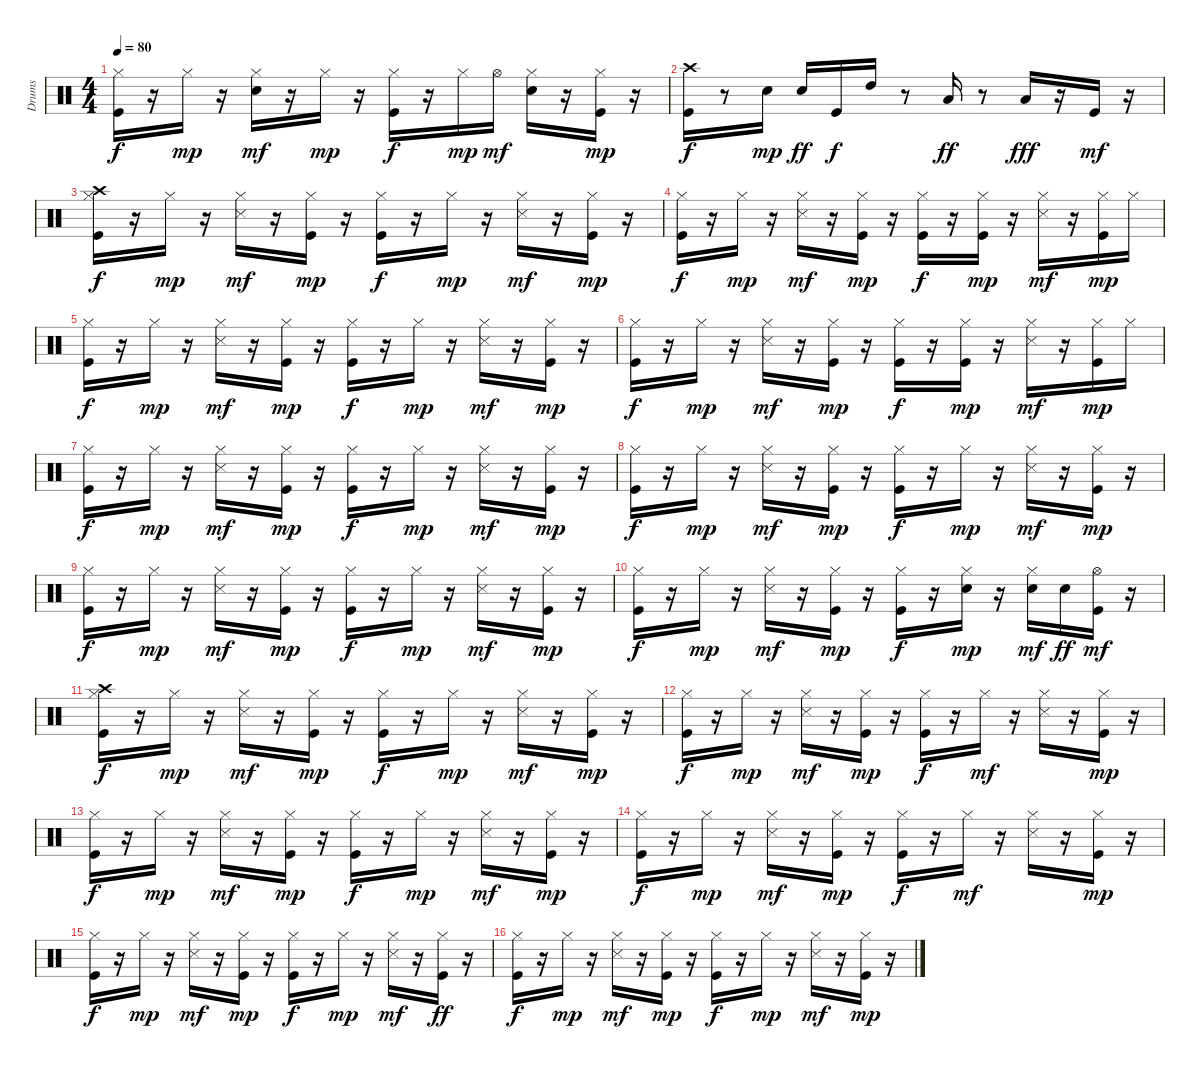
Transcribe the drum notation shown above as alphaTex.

\track ("Drums  " "Drums  ") {instrument percussion}
\staff {score}
\articulation defaults
\ts (4 4)
\tempo 80
\clef neutral
\ks c
("Kick (hit)" "Hi-Hat (closed)").16{dy f} r.16 "Hi-Hat (closed)".16{dy mp} r.16 ("Snare (hit) 2" "Hi-Hat (closed)").16{dy mf} r.16 "Hi-Hat (closed)".16{dy mp} r.16 ("Kick (hit)" "Hi-Hat (closed)").16{dy f} r.16 "Hi-Hat (closed)".16{dy mp} "Hi-Hat (open)".16{dy mf} ("Snare (hit) 2" "Hi-Hat (closed)").16 r.16 ("Kick (hit)" "Hi-Hat (closed)").16{dy mp} r.16 |
("Kick (hit)" "Crash high (hit)").16{dy f} r.8 "Snare (hit) 2".16{dy mp} "Snare (hit) 2".16{dy ff} "Kick (hit)".16{dy f} "High Tom (hit)".16 r.8 "Low Tom (hit)".16{dy ff} r.8 "Low Floor Tom (hit)".16{dy fff} r.16 "Kick (hit)".16{dy mf} r.16 |
("Kick (hit)" "Hi-Hat (closed)" "Crash high (hit)").16{dy f} r.16 "Hi-Hat (closed)".16{dy mp} r.16 ("Hi-Hat (closed)" "Snare (side stick) 3").16{dy mf} r.16 ("Kick (hit)" "Hi-Hat (closed)").16{dy mp} r.16 ("Kick (hit)" "Hi-Hat (closed)").16{dy f} r.16 "Hi-Hat (closed)".16{dy mp} r.16 ("Hi-Hat (closed)" "Snare (side stick) 3").16{dy mf} r.16 ("Kick (hit)" "Hi-Hat (closed)").16{dy mp} r.16 |
("Kick (hit)" "Hi-Hat (closed)").16{dy f} r.16 "Hi-Hat (closed)".16{dy mp} r.16 ("Hi-Hat (closed)" "Snare (side stick) 3").16{dy mf} r.16 ("Kick (hit)" "Hi-Hat (closed)").16{dy mp} r.16 ("Kick (hit)" "Hi-Hat (closed)").16{dy f} r.16 ("Kick (hit)" "Hi-Hat (closed)").16{dy mp} r.16 ("Hi-Hat (closed)" "Snare (side stick) 3").16{dy mf} r.16 ("Kick (hit)" "Hi-Hat (closed)").16{dy mp} "Hi-Hat (closed)".16 |
("Kick (hit)" "Hi-Hat (closed)").16{dy f} r.16 "Hi-Hat (closed)".16{dy mp} r.16 ("Hi-Hat (closed)" "Snare (side stick) 3").16{dy mf} r.16 ("Kick (hit)" "Hi-Hat (closed)").16{dy mp} r.16 ("Kick (hit)" "Hi-Hat (closed)").16{dy f} r.16 "Hi-Hat (closed)".16{dy mp} r.16 ("Hi-Hat (closed)" "Snare (side stick) 3").16{dy mf} r.16 ("Kick (hit)" "Hi-Hat (closed)").16{dy mp} r.16 |
("Kick (hit)" "Hi-Hat (closed)").16{dy f} r.16 "Hi-Hat (closed)".16{dy mp} r.16 ("Hi-Hat (closed)" "Snare (side stick) 3").16{dy mf} r.16 ("Kick (hit)" "Hi-Hat (closed)").16{dy mp} r.16 ("Kick (hit)" "Hi-Hat (closed)").16{dy f} r.16 ("Kick (hit)" "Hi-Hat (closed)").16{dy mp} r.16 ("Hi-Hat (closed)" "Snare (side stick) 3").16{dy mf} r.16 ("Kick (hit)" "Hi-Hat (closed)").16{dy mp} "Hi-Hat (closed)".16 |
("Kick (hit)" "Hi-Hat (closed)").16{dy f} r.16 "Hi-Hat (closed)".16{dy mp} r.16 ("Hi-Hat (closed)" "Snare (side stick) 3").16{dy mf} r.16 ("Kick (hit)" "Hi-Hat (closed)").16{dy mp} r.16 ("Kick (hit)" "Hi-Hat (closed)").16{dy f} r.16 "Hi-Hat (closed)".16{dy mp} r.16 ("Hi-Hat (closed)" "Snare (side stick) 3").16{dy mf} r.16 ("Kick (hit)" "Hi-Hat (closed)").16{dy mp} r.16 |
("Kick (hit)" "Hi-Hat (closed)").16{dy f} r.16 "Hi-Hat (closed)".16{dy mp} r.16 ("Hi-Hat (closed)" "Snare (side stick) 3").16{dy mf} r.16 ("Kick (hit)" "Hi-Hat (closed)").16{dy mp} r.16 ("Kick (hit)" "Hi-Hat (closed)").16{dy f} r.16 "Hi-Hat (closed)".16{dy mp} r.16 ("Hi-Hat (closed)" "Snare (side stick) 3").16{dy mf} r.16 ("Kick (hit)" "Hi-Hat (closed)").16{dy mp} r.16 |
("Kick (hit)" "Hi-Hat (closed)").16{dy f} r.16 "Hi-Hat (closed)".16{dy mp} r.16 ("Hi-Hat (closed)" "Snare (side stick) 3").16{dy mf} r.16 ("Kick (hit)" "Hi-Hat (closed)").16{dy mp} r.16 ("Kick (hit)" "Hi-Hat (closed)").16{dy f} r.16 "Hi-Hat (closed)".16{dy mp} r.16 ("Hi-Hat (closed)" "Snare (side stick) 3").16{dy mf} r.16 ("Kick (hit)" "Hi-Hat (closed)").16{dy mp} r.16 |
("Kick (hit)" "Hi-Hat (closed)").16{dy f} r.16 "Hi-Hat (closed)".16{dy mp} r.16 ("Hi-Hat (closed)" "Snare (side stick) 3").16{dy mf} r.16 ("Kick (hit)" "Hi-Hat (closed)").16{dy mp} r.16 ("Kick (hit)" "Hi-Hat (closed)").16{dy f} r.16 ("Snare (hit) 2" "Hi-Hat (closed)").16{dy mp} r.16 ("Snare (hit) 2" "Hi-Hat (closed)").16{dy mf} "Snare (hit) 2".16{dy ff} ("Kick (hit)" "Hi-Hat (open)").16{dy mf} r.16 |
("Kick (hit)" "Hi-Hat (closed)" "Crash high (hit)").16{dy f} r.16 "Hi-Hat (closed)".16{dy mp} r.16 ("Hi-Hat (closed)" "Snare (side stick) 3").16{dy mf} r.16 ("Kick (hit)" "Hi-Hat (closed)").16{dy mp} r.16 ("Kick (hit)" "Hi-Hat (closed)").16{dy f} r.16 "Hi-Hat (closed)".16{dy mp} r.16 ("Hi-Hat (closed)" "Snare (side stick) 3").16{dy mf} r.16 ("Kick (hit)" "Hi-Hat (closed)").16{dy mp} r.16 |
("Kick (hit)" "Hi-Hat (closed)").16{dy f} r.16 "Hi-Hat (closed)".16{dy mp} r.16 ("Hi-Hat (closed)" "Snare (side stick) 3").16{dy mf} r.16 ("Kick (hit)" "Hi-Hat (closed)").16{dy mp} r.16 ("Kick (hit)" "Hi-Hat (closed)").16{dy f} r.16 "Hi-Hat (closed)".16{dy mf} r.16 ("Hi-Hat (closed)" "Snare (side stick) 3").16 r.16 ("Kick (hit)" "Hi-Hat (closed)").16{dy mp} r.16 |
("Kick (hit)" "Hi-Hat (closed)").16{dy f} r.16 "Hi-Hat (closed)".16{dy mp} r.16 ("Hi-Hat (closed)" "Snare (side stick) 3").16{dy mf} r.16 ("Kick (hit)" "Hi-Hat (closed)").16{dy mp} r.16 ("Kick (hit)" "Hi-Hat (closed)").16{dy f} r.16 "Hi-Hat (closed)".16{dy mp} r.16 ("Hi-Hat (closed)" "Snare (side stick) 3").16{dy mf} r.16 ("Kick (hit)" "Hi-Hat (closed)").16{dy mp} r.16 |
("Kick (hit)" "Hi-Hat (closed)").16{dy f} r.16 "Hi-Hat (closed)".16{dy mp} r.16 ("Hi-Hat (closed)" "Snare (side stick) 3").16{dy mf} r.16 ("Kick (hit)" "Hi-Hat (closed)").16{dy mp} r.16 ("Kick (hit)" "Hi-Hat (closed)").16{dy f} r.16 "Hi-Hat (closed)".16{dy mf} r.16 ("Hi-Hat (closed)" "Snare (side stick) 3").16 r.16 ("Kick (hit)" "Hi-Hat (closed)").16{dy mp} r.16 |
("Kick (hit)" "Hi-Hat (closed)").16{dy f} r.16 "Hi-Hat (closed)".16{dy mp} r.16 ("Hi-Hat (closed)" "Snare (side stick) 3").16{dy mf} r.16 ("Kick (hit)" "Hi-Hat (closed)").16{dy mp} r.16 ("Kick (hit)" "Hi-Hat (closed)").16{dy f} r.16 "Hi-Hat (closed)".16{dy mp} r.16 ("Hi-Hat (closed)" "Snare (side stick) 3").16{dy mf} r.16 ("Kick (hit)" "Hi-Hat (closed)").16{dy ff} r.16 |
("Kick (hit)" "Hi-Hat (closed)").16{dy f} r.16 "Hi-Hat (closed)".16{dy mp} r.16 ("Hi-Hat (closed)" "Snare (side stick) 3").16{dy mf} r.16 ("Kick (hit)" "Hi-Hat (closed)").16{dy mp} r.16 ("Kick (hit)" "Hi-Hat (closed)").16{dy f} r.16 "Hi-Hat (closed)".16{dy mp} r.16 ("Hi-Hat (closed)" "Snare (side stick) 3").16{dy mf} r.16 ("Kick (hit)" "Hi-Hat (closed)").16{dy mp} r.16
